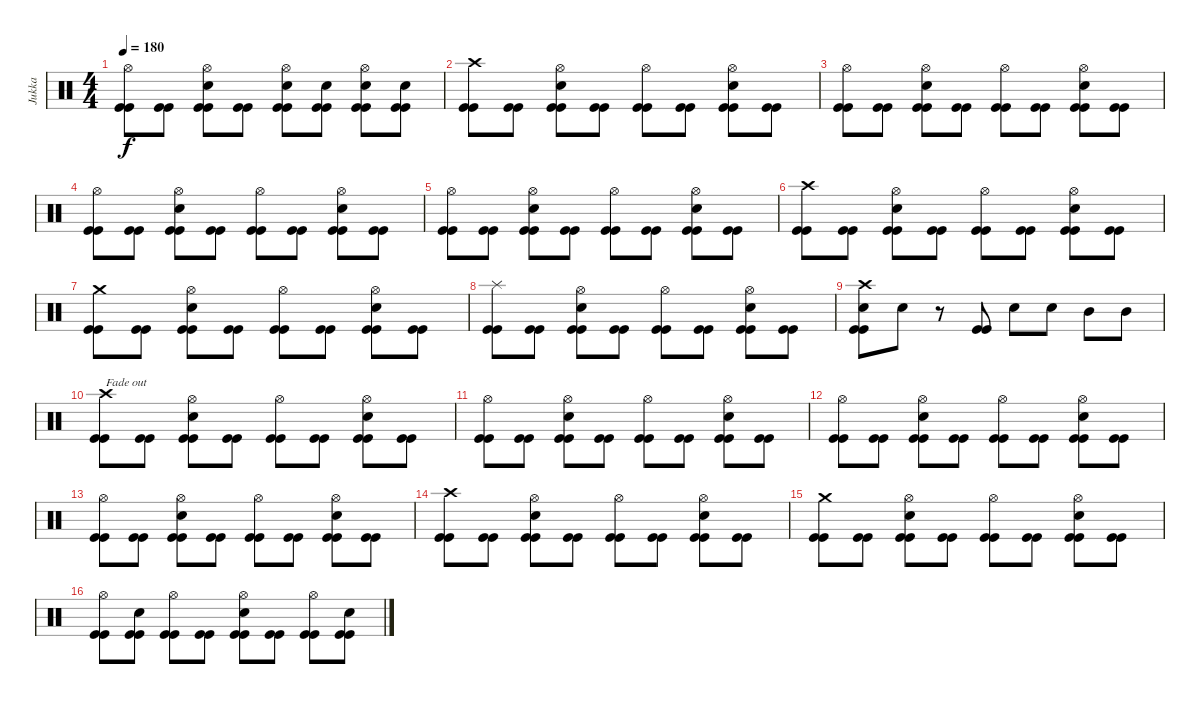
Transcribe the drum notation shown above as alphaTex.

\track ("Jukka" "Jukka") {instrument percussion}
\staff {score}
\articulation defaults
\ts (4 4)
\tempo 180
\clef neutral
\ks c
("Hi-Hat (open)" "Kick (hit)" "Kick (hit)").8{dy f} ("Kick (hit)" "Kick (hit)").8 ("Hi-Hat (open)" "Kick (hit)" "Kick (hit)" "Snare (hit) 2").8 ("Kick (hit)" "Kick (hit)").8 ("Hi-Hat (open)" "Kick (hit)" "Kick (hit)" "Snare (hit) 2").8 ("Kick (hit)" "Kick (hit)" "Snare (hit) 2").8 ("Hi-Hat (open)" "Kick (hit)" "Kick (hit)" "Snare (hit) 2").8 ("Kick (hit)" "Kick (hit)" "Snare (hit) 2").8 |
("Crash high (hit)" "Kick (hit)" "Kick (hit)").8 ("Kick (hit)" "Kick (hit)").8 ("Hi-Hat (open)" "Kick (hit)" "Kick (hit)" "Snare (hit) 2").8 ("Kick (hit)" "Kick (hit)").8 ("Hi-Hat (open)" "Kick (hit)" "Kick (hit)").8 ("Kick (hit)" "Kick (hit)").8 ("Hi-Hat (open)" "Kick (hit)" "Kick (hit)" "Snare (hit) 2").8 ("Kick (hit)" "Kick (hit)").8 |
("Hi-Hat (open)" "Kick (hit)" "Kick (hit)").8 ("Kick (hit)" "Kick (hit)").8 ("Hi-Hat (open)" "Kick (hit)" "Kick (hit)" "Snare (hit) 2").8 ("Kick (hit)" "Kick (hit)").8 ("Hi-Hat (open)" "Kick (hit)" "Kick (hit)").8 ("Kick (hit)" "Kick (hit)").8 ("Hi-Hat (open)" "Kick (hit)" "Kick (hit)" "Snare (hit) 2").8 ("Kick (hit)" "Kick (hit)").8 |
("Hi-Hat (open)" "Kick (hit)" "Kick (hit)").8 ("Kick (hit)" "Kick (hit)").8 ("Hi-Hat (open)" "Kick (hit)" "Kick (hit)" "Snare (hit) 2").8 ("Kick (hit)" "Kick (hit)").8 ("Hi-Hat (open)" "Kick (hit)" "Kick (hit)").8 ("Kick (hit)" "Kick (hit)").8 ("Hi-Hat (open)" "Kick (hit)" "Kick (hit)" "Snare (hit) 2").8 ("Kick (hit)" "Kick (hit)").8 |
("Hi-Hat (open)" "Kick (hit)" "Kick (hit)").8 ("Kick (hit)" "Kick (hit)").8 ("Hi-Hat (open)" "Kick (hit)" "Kick (hit)" "Snare (hit) 2").8 ("Kick (hit)" "Kick (hit)").8 ("Hi-Hat (open)" "Kick (hit)" "Kick (hit)").8 ("Kick (hit)" "Kick (hit)").8 ("Hi-Hat (open)" "Kick (hit)" "Kick (hit)" "Snare (hit) 2").8 ("Kick (hit)" "Kick (hit)").8 |
("Crash high (hit)" "Kick (hit)" "Kick (hit)").8 ("Kick (hit)" "Kick (hit)").8 ("Hi-Hat (open)" "Kick (hit)" "Kick (hit)" "Snare (hit) 2").8 ("Kick (hit)" "Kick (hit)").8 ("Hi-Hat (open)" "Kick (hit)" "Kick (hit)").8 ("Kick (hit)" "Kick (hit)").8 ("Hi-Hat (open)" "Kick (hit)" "Kick (hit)" "Snare (hit) 2").8 ("Kick (hit)" "Kick (hit)").8 |
("Crash medium (hit)" "Kick (hit)" "Kick (hit)").8 ("Kick (hit)" "Kick (hit)").8 ("Hi-Hat (open)" "Kick (hit)" "Kick (hit)" "Snare (hit) 2").8 ("Kick (hit)" "Kick (hit)").8 ("Hi-Hat (open)" "Kick (hit)" "Kick (hit)").8 ("Kick (hit)" "Kick (hit)").8 ("Hi-Hat (open)" "Kick (hit)" "Kick (hit)" "Snare (hit) 2").8 ("Kick (hit)" "Kick (hit)").8 |
("Splash (hit)" "Kick (hit)" "Kick (hit)").8 ("Kick (hit)" "Kick (hit)").8 ("Hi-Hat (open)" "Kick (hit)" "Kick (hit)" "Snare (hit) 2").8 ("Kick (hit)" "Kick (hit)").8 ("Hi-Hat (open)" "Kick (hit)" "Kick (hit)").8 ("Kick (hit)" "Kick (hit)").8 ("Hi-Hat (open)" "Kick (hit)" "Kick (hit)" "Snare (hit) 2").8 ("Kick (hit)" "Kick (hit)").8 |
("Crash high (hit)" "Snare (hit) 2" "Kick (hit)" "Kick (hit)").8 "Snare (hit) 2".8 r.8 ("Kick (hit)" "Kick (hit)").8 "Snare (hit) 2".8 "Snare (hit) 2".8 "Mid Tom (hit)".8 "Mid Tom (hit)".8 |
("Crash high (hit)" "Kick (hit)" "Kick (hit)").8{txt "Fade out" volume 12} ("Kick (hit)" "Kick (hit)").8 ("Hi-Hat (open)" "Kick (hit)" "Kick (hit)" "Snare (hit) 2").8 ("Kick (hit)" "Kick (hit)").8 ("Hi-Hat (open)" "Kick (hit)" "Kick (hit)").8 ("Kick (hit)" "Kick (hit)").8 ("Hi-Hat (open)" "Kick (hit)" "Kick (hit)" "Snare (hit) 2").8 ("Kick (hit)" "Kick (hit)").8 |
("Hi-Hat (open)" "Kick (hit)" "Kick (hit)").8 ("Kick (hit)" "Kick (hit)").8 ("Hi-Hat (open)" "Kick (hit)" "Kick (hit)" "Snare (hit) 2").8 ("Kick (hit)" "Kick (hit)").8 ("Hi-Hat (open)" "Kick (hit)" "Kick (hit)").8 ("Kick (hit)" "Kick (hit)").8 ("Hi-Hat (open)" "Kick (hit)" "Kick (hit)" "Snare (hit) 2").8 ("Kick (hit)" "Kick (hit)").8 |
("Hi-Hat (open)" "Kick (hit)" "Kick (hit)").8{volume 11} ("Kick (hit)" "Kick (hit)").8 ("Hi-Hat (open)" "Kick (hit)" "Kick (hit)" "Snare (hit) 2").8 ("Kick (hit)" "Kick (hit)").8 ("Hi-Hat (open)" "Kick (hit)" "Kick (hit)").8 ("Kick (hit)" "Kick (hit)").8 ("Hi-Hat (open)" "Kick (hit)" "Kick (hit)" "Snare (hit) 2").8 ("Kick (hit)" "Kick (hit)").8 |
("Hi-Hat (open)" "Kick (hit)" "Kick (hit)").8 ("Kick (hit)" "Kick (hit)").8 ("Hi-Hat (open)" "Kick (hit)" "Kick (hit)" "Snare (hit) 2").8 ("Kick (hit)" "Kick (hit)").8 ("Hi-Hat (open)" "Kick (hit)" "Kick (hit)").8 ("Kick (hit)" "Kick (hit)").8 ("Hi-Hat (open)" "Kick (hit)" "Kick (hit)" "Snare (hit) 2").8 ("Kick (hit)" "Kick (hit)").8 |
("Crash high (hit)" "Kick (hit)" "Kick (hit)").8{volume 10} ("Kick (hit)" "Kick (hit)").8 ("Hi-Hat (open)" "Kick (hit)" "Kick (hit)" "Snare (hit) 2").8 ("Kick (hit)" "Kick (hit)").8 ("Hi-Hat (open)" "Kick (hit)" "Kick (hit)").8 ("Kick (hit)" "Kick (hit)").8 ("Hi-Hat (open)" "Kick (hit)" "Kick (hit)" "Snare (hit) 2").8 ("Kick (hit)" "Kick (hit)").8 |
("Crash medium (hit)" "Kick (hit)" "Kick (hit)").8 ("Kick (hit)" "Kick (hit)").8 ("Hi-Hat (open)" "Kick (hit)" "Kick (hit)" "Snare (hit) 2").8 ("Kick (hit)" "Kick (hit)").8 ("Hi-Hat (open)" "Kick (hit)" "Kick (hit)").8 ("Kick (hit)" "Kick (hit)").8 ("Hi-Hat (open)" "Kick (hit)" "Kick (hit)" "Snare (hit) 2").8 ("Kick (hit)" "Kick (hit)").8 |
("Hi-Hat (open)" "Kick (hit)" "Kick (hit)").8{volume 9} ("Kick (hit)" "Kick (hit)" "Snare (hit) 2").8 ("Hi-Hat (open)" "Kick (hit)" "Kick (hit)").8 ("Kick (hit)" "Kick (hit)").8 ("Hi-Hat (open)" "Kick (hit)" "Kick (hit)" "Snare (hit) 2").8 ("Kick (hit)" "Kick (hit)").8 ("Hi-Hat (open)" "Kick (hit)" "Kick (hit)").8 ("Kick (hit)" "Kick (hit)" "Snare (hit) 2").8
